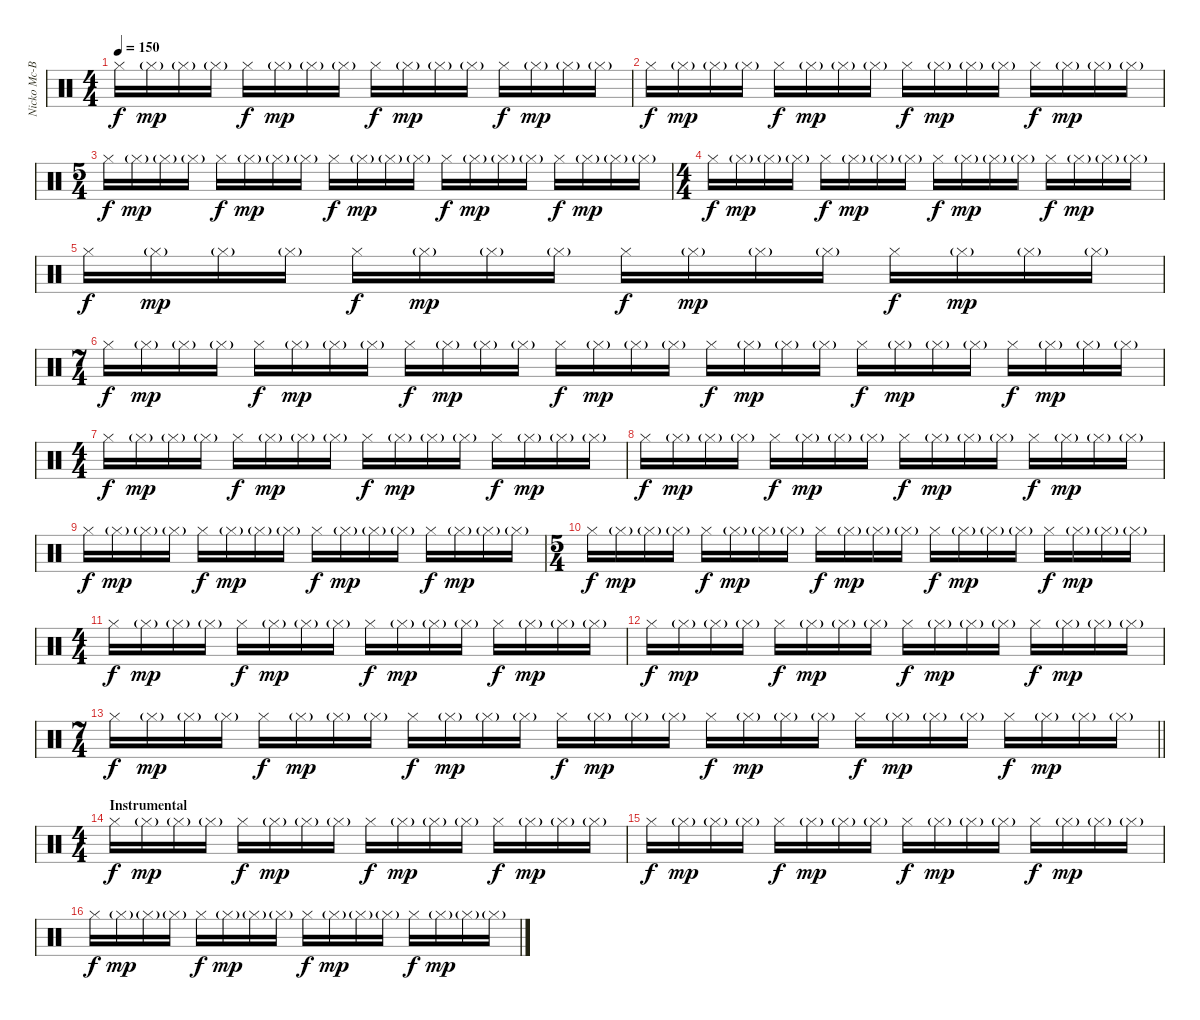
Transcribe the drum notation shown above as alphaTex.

\track ("Nicko Mc-Brain" "Nicko Mc-B") {instrument percussion}
\staff {score}
\articulation defaults
\ts (4 4)
\tempo 150
\clef neutral
\ks c "Hi-Hat (closed)".16{dy f} "Hi-Hat (closed)"{g}.16{dy mp} "Hi-Hat (closed)"{g}.16 "Hi-Hat (closed)"{g}.16 "Hi-Hat (closed)".16{dy f} "Hi-Hat (closed)"{g}.16{dy mp} "Hi-Hat (closed)"{g}.16 "Hi-Hat (closed)"{g}.16 "Hi-Hat (closed)".16{dy f} "Hi-Hat (closed)"{g}.16{dy mp} "Hi-Hat (closed)"{g}.16 "Hi-Hat (closed)"{g}.16 "Hi-Hat (closed)".16{dy f} "Hi-Hat (closed)"{g}.16{dy mp} "Hi-Hat (closed)"{g}.16 "Hi-Hat (closed)"{g}.16
|
"Hi-Hat (closed)".16{dy f} "Hi-Hat (closed)"{g}.16{dy mp} "Hi-Hat (closed)"{g}.16 "Hi-Hat (closed)"{g}.16 "Hi-Hat (closed)".16{dy f} "Hi-Hat (closed)"{g}.16{dy mp} "Hi-Hat (closed)"{g}.16 "Hi-Hat (closed)"{g}.16 "Hi-Hat (closed)".16{dy f} "Hi-Hat (closed)"{g}.16{dy mp} "Hi-Hat (closed)"{g}.16 "Hi-Hat (closed)"{g}.16 "Hi-Hat (closed)".16{dy f} "Hi-Hat (closed)"{g}.16{dy mp} "Hi-Hat (closed)"{g}.16 "Hi-Hat (closed)"{g}.16 |
\ts (5 4)
"Hi-Hat (closed)".16{dy f} "Hi-Hat (closed)"{g}.16{dy mp} "Hi-Hat (closed)"{g}.16 "Hi-Hat (closed)"{g}.16 "Hi-Hat (closed)".16{dy f} "Hi-Hat (closed)"{g}.16{dy mp} "Hi-Hat (closed)"{g}.16 "Hi-Hat (closed)"{g}.16 "Hi-Hat (closed)".16{dy f} "Hi-Hat (closed)"{g}.16{dy mp} "Hi-Hat (closed)"{g}.16 "Hi-Hat (closed)"{g}.16 "Hi-Hat (closed)".16{dy f} "Hi-Hat (closed)"{g}.16{dy mp} "Hi-Hat (closed)"{g}.16 "Hi-Hat (closed)"{g}.16 "Hi-Hat (closed)".16{dy f} "Hi-Hat (closed)"{g}.16{dy mp} "Hi-Hat (closed)"{g}.16 "Hi-Hat (closed)"{g}.16 |
\ts (4 4)
"Hi-Hat (closed)".16{dy f} "Hi-Hat (closed)"{g}.16{dy mp} "Hi-Hat (closed)"{g}.16 "Hi-Hat (closed)"{g}.16 "Hi-Hat (closed)".16{dy f} "Hi-Hat (closed)"{g}.16{dy mp} "Hi-Hat (closed)"{g}.16 "Hi-Hat (closed)"{g}.16 "Hi-Hat (closed)".16{dy f} "Hi-Hat (closed)"{g}.16{dy mp} "Hi-Hat (closed)"{g}.16 "Hi-Hat (closed)"{g}.16 "Hi-Hat (closed)".16{dy f} "Hi-Hat (closed)"{g}.16{dy mp} "Hi-Hat (closed)"{g}.16 "Hi-Hat (closed)"{g}.16 |
"Hi-Hat (closed)".16{dy f} "Hi-Hat (closed)"{g}.16{dy mp} "Hi-Hat (closed)"{g}.16 "Hi-Hat (closed)"{g}.16 "Hi-Hat (closed)".16{dy f} "Hi-Hat (closed)"{g}.16{dy mp} "Hi-Hat (closed)"{g}.16 "Hi-Hat (closed)"{g}.16 "Hi-Hat (closed)".16{dy f} "Hi-Hat (closed)"{g}.16{dy mp} "Hi-Hat (closed)"{g}.16 "Hi-Hat (closed)"{g}.16 "Hi-Hat (closed)".16{dy f} "Hi-Hat (closed)"{g}.16{dy mp} "Hi-Hat (closed)"{g}.16 "Hi-Hat (closed)"{g}.16 |
\ts (7 4)
"Hi-Hat (closed)".16{dy f} "Hi-Hat (closed)"{g}.16{dy mp} "Hi-Hat (closed)"{g}.16 "Hi-Hat (closed)"{g}.16 "Hi-Hat (closed)".16{dy f} "Hi-Hat (closed)"{g}.16{dy mp} "Hi-Hat (closed)"{g}.16 "Hi-Hat (closed)"{g}.16 "Hi-Hat (closed)".16{dy f} "Hi-Hat (closed)"{g}.16{dy mp} "Hi-Hat (closed)"{g}.16 "Hi-Hat (closed)"{g}.16 "Hi-Hat (closed)".16{dy f} "Hi-Hat (closed)"{g}.16{dy mp} "Hi-Hat (closed)"{g}.16 "Hi-Hat (closed)"{g}.16 "Hi-Hat (closed)".16{dy f} "Hi-Hat (closed)"{g}.16{dy mp} "Hi-Hat (closed)"{g}.16 "Hi-Hat (closed)"{g}.16 "Hi-Hat (closed)".16{dy f} "Hi-Hat (closed)"{g}.16{dy mp} "Hi-Hat (closed)"{g}.16 "Hi-Hat (closed)"{g}.16 "Hi-Hat (closed)".16{dy f} "Hi-Hat (closed)"{g}.16{dy mp} "Hi-Hat (closed)"{g}.16 "Hi-Hat (closed)"{g}.16 |
\ts (4 4)
"Hi-Hat (closed)".16{dy f} "Hi-Hat (closed)"{g}.16{dy mp} "Hi-Hat (closed)"{g}.16 "Hi-Hat (closed)"{g}.16 "Hi-Hat (closed)".16{dy f} "Hi-Hat (closed)"{g}.16{dy mp} "Hi-Hat (closed)"{g}.16 "Hi-Hat (closed)"{g}.16 "Hi-Hat (closed)".16{dy f} "Hi-Hat (closed)"{g}.16{dy mp} "Hi-Hat (closed)"{g}.16 "Hi-Hat (closed)"{g}.16 "Hi-Hat (closed)".16{dy f} "Hi-Hat (closed)"{g}.16{dy mp} "Hi-Hat (closed)"{g}.16 "Hi-Hat (closed)"{g}.16 |
"Hi-Hat (closed)".16{dy f} "Hi-Hat (closed)"{g}.16{dy mp} "Hi-Hat (closed)"{g}.16 "Hi-Hat (closed)"{g}.16 "Hi-Hat (closed)".16{dy f} "Hi-Hat (closed)"{g}.16{dy mp} "Hi-Hat (closed)"{g}.16 "Hi-Hat (closed)"{g}.16 "Hi-Hat (closed)".16{dy f} "Hi-Hat (closed)"{g}.16{dy mp} "Hi-Hat (closed)"{g}.16 "Hi-Hat (closed)"{g}.16 "Hi-Hat (closed)".16{dy f} "Hi-Hat (closed)"{g}.16{dy mp} "Hi-Hat (closed)"{g}.16 "Hi-Hat (closed)"{g}.16 |
"Hi-Hat (closed)".16{dy f} "Hi-Hat (closed)"{g}.16{dy mp} "Hi-Hat (closed)"{g}.16 "Hi-Hat (closed)"{g}.16 "Hi-Hat (closed)".16{dy f} "Hi-Hat (closed)"{g}.16{dy mp} "Hi-Hat (closed)"{g}.16 "Hi-Hat (closed)"{g}.16 "Hi-Hat (closed)".16{dy f} "Hi-Hat (closed)"{g}.16{dy mp} "Hi-Hat (closed)"{g}.16 "Hi-Hat (closed)"{g}.16 "Hi-Hat (closed)".16{dy f} "Hi-Hat (closed)"{g}.16{dy mp} "Hi-Hat (closed)"{g}.16 "Hi-Hat (closed)"{g}.16 |
\ts (5 4)
"Hi-Hat (closed)".16{dy f} "Hi-Hat (closed)"{g}.16{dy mp} "Hi-Hat (closed)"{g}.16 "Hi-Hat (closed)"{g}.16 "Hi-Hat (closed)".16{dy f} "Hi-Hat (closed)"{g}.16{dy mp} "Hi-Hat (closed)"{g}.16 "Hi-Hat (closed)"{g}.16 "Hi-Hat (closed)".16{dy f} "Hi-Hat (closed)"{g}.16{dy mp} "Hi-Hat (closed)"{g}.16 "Hi-Hat (closed)"{g}.16 "Hi-Hat (closed)".16{dy f} "Hi-Hat (closed)"{g}.16{dy mp} "Hi-Hat (closed)"{g}.16 "Hi-Hat (closed)"{g}.16 "Hi-Hat (closed)".16{dy f} "Hi-Hat (closed)"{g}.16{dy mp} "Hi-Hat (closed)"{g}.16 "Hi-Hat (closed)"{g}.16 |
\ts (4 4)
"Hi-Hat (closed)".16{dy f} "Hi-Hat (closed)"{g}.16{dy mp} "Hi-Hat (closed)"{g}.16 "Hi-Hat (closed)"{g}.16 "Hi-Hat (closed)".16{dy f} "Hi-Hat (closed)"{g}.16{dy mp} "Hi-Hat (closed)"{g}.16 "Hi-Hat (closed)"{g}.16 "Hi-Hat (closed)".16{dy f} "Hi-Hat (closed)"{g}.16{dy mp} "Hi-Hat (closed)"{g}.16 "Hi-Hat (closed)"{g}.16 "Hi-Hat (closed)".16{dy f} "Hi-Hat (closed)"{g}.16{dy mp} "Hi-Hat (closed)"{g}.16 "Hi-Hat (closed)"{g}.16 |
"Hi-Hat (closed)".16{dy f} "Hi-Hat (closed)"{g}.16{dy mp} "Hi-Hat (closed)"{g}.16 "Hi-Hat (closed)"{g}.16 "Hi-Hat (closed)".16{dy f} "Hi-Hat (closed)"{g}.16{dy mp} "Hi-Hat (closed)"{g}.16 "Hi-Hat (closed)"{g}.16 "Hi-Hat (closed)".16{dy f} "Hi-Hat (closed)"{g}.16{dy mp} "Hi-Hat (closed)"{g}.16 "Hi-Hat (closed)"{g}.16 "Hi-Hat (closed)".16{dy f} "Hi-Hat (closed)"{g}.16{dy mp} "Hi-Hat (closed)"{g}.16 "Hi-Hat (closed)"{g}.16 |
\ts (7 4)
\barLineRight lightlight "Hi-Hat (closed)".16{dy f} "Hi-Hat (closed)"{g}.16{dy mp} "Hi-Hat (closed)"{g}.16 "Hi-Hat (closed)"{g}.16 "Hi-Hat (closed)".16{dy f} "Hi-Hat (closed)"{g}.16{dy mp} "Hi-Hat (closed)"{g}.16 "Hi-Hat (closed)"{g}.16 "Hi-Hat (closed)".16{dy f} "Hi-Hat (closed)"{g}.16{dy mp} "Hi-Hat (closed)"{g}.16 "Hi-Hat (closed)"{g}.16 "Hi-Hat (closed)".16{dy f} "Hi-Hat (closed)"{g}.16{dy mp} "Hi-Hat (closed)"{g}.16 "Hi-Hat (closed)"{g}.16 "Hi-Hat (closed)".16{dy f} "Hi-Hat (closed)"{g}.16{dy mp} "Hi-Hat (closed)"{g}.16 "Hi-Hat (closed)"{g}.16 "Hi-Hat (closed)".16{dy f} "Hi-Hat (closed)"{g}.16{dy mp} "Hi-Hat (closed)"{g}.16 "Hi-Hat (closed)"{g}.16 "Hi-Hat (closed)".16{dy f} "Hi-Hat (closed)"{g}.16{dy mp} "Hi-Hat (closed)"{g}.16 "Hi-Hat (closed)"{g}.16
|
\ts (4 4)
\section ("" "Instrumental")
"Hi-Hat (closed)".16{dy f} "Hi-Hat (closed)"{g}.16{dy mp} "Hi-Hat (closed)"{g}.16 "Hi-Hat (closed)"{g}.16 "Hi-Hat (closed)".16{dy f} "Hi-Hat (closed)"{g}.16{dy mp} "Hi-Hat (closed)"{g}.16 "Hi-Hat (closed)"{g}.16 "Hi-Hat (closed)".16{dy f} "Hi-Hat (closed)"{g}.16{dy mp} "Hi-Hat (closed)"{g}.16 "Hi-Hat (closed)"{g}.16 "Hi-Hat (closed)".16{dy f} "Hi-Hat (closed)"{g}.16{dy mp} "Hi-Hat (closed)"{g}.16 "Hi-Hat (closed)"{g}.16 |
"Hi-Hat (closed)".16{dy f} "Hi-Hat (closed)"{g}.16{dy mp} "Hi-Hat (closed)"{g}.16 "Hi-Hat (closed)"{g}.16 "Hi-Hat (closed)".16{dy f} "Hi-Hat (closed)"{g}.16{dy mp} "Hi-Hat (closed)"{g}.16 "Hi-Hat (closed)"{g}.16 "Hi-Hat (closed)".16{dy f} "Hi-Hat (closed)"{g}.16{dy mp} "Hi-Hat (closed)"{g}.16 "Hi-Hat (closed)"{g}.16 "Hi-Hat (closed)".16{dy f} "Hi-Hat (closed)"{g}.16{dy mp} "Hi-Hat (closed)"{g}.16 "Hi-Hat (closed)"{g}.16 |
"Hi-Hat (closed)".16{dy f} "Hi-Hat (closed)"{g}.16{dy mp} "Hi-Hat (closed)"{g}.16 "Hi-Hat (closed)"{g}.16 "Hi-Hat (closed)".16{dy f} "Hi-Hat (closed)"{g}.16{dy mp} "Hi-Hat (closed)"{g}.16 "Hi-Hat (closed)"{g}.16 "Hi-Hat (closed)".16{dy f} "Hi-Hat (closed)"{g}.16{dy mp} "Hi-Hat (closed)"{g}.16 "Hi-Hat (closed)"{g}.16 "Hi-Hat (closed)".16{dy f} "Hi-Hat (closed)"{g}.16{dy mp} "Hi-Hat (closed)"{g}.16 "Hi-Hat (closed)"{g}.16
